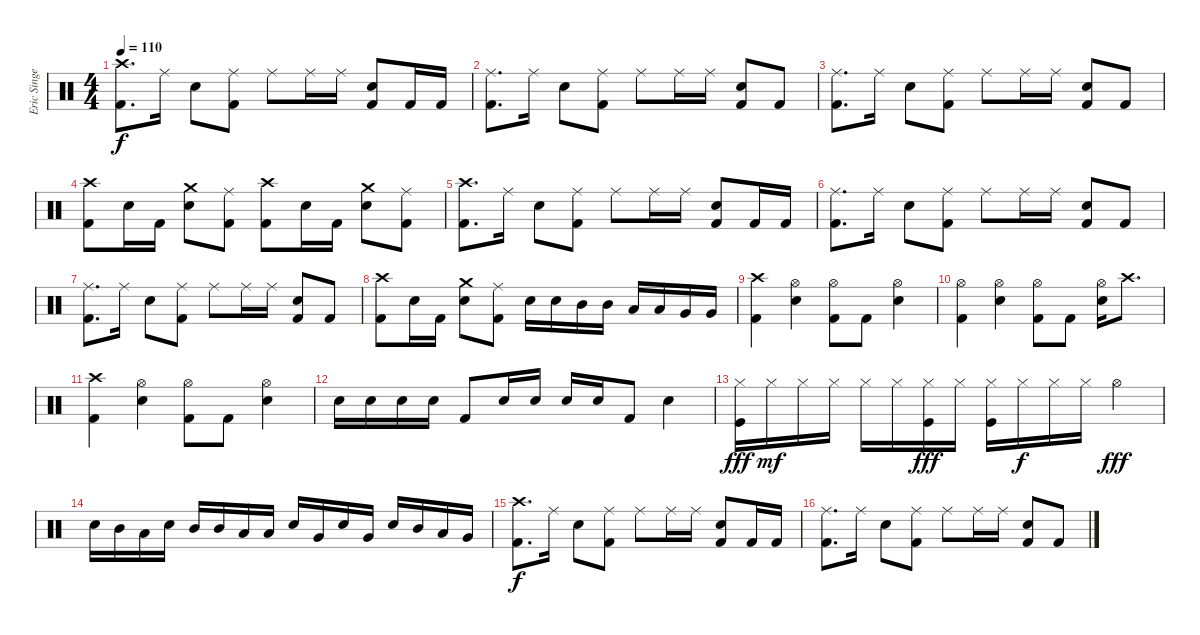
\track ("Eric Singer" "Eric Singe") {instrument percussion}
\staff {score}
\articulation defaults
\ts (4 4)
\tempo 110
\clef neutral
\ks c
("Crash high (hit)" "Kick (hit) 2").8{d dy f} "Ride (middle)".16 "Electric Snare (hit)".8 ("Ride (middle)" "Kick (hit) 2").8 "Ride (middle)".8 "Ride (middle)".16 "Ride (middle)".16 ("Electric Snare (hit)" "Kick (hit) 2").8 "Kick (hit) 2".16 "Kick (hit) 2".16 |
("Ride (middle)" "Kick (hit) 2").8{d} "Ride (middle)".16 "Electric Snare (hit)".8 ("Ride (middle)" "Kick (hit) 2").8 "Ride (middle)".8 "Ride (middle)".16 "Ride (middle)".16 ("Electric Snare (hit)" "Kick (hit) 2").8 "Kick (hit) 2".8 |
("Ride (middle)" "Kick (hit) 2").8{d} "Ride (middle)".16 "Electric Snare (hit)".8 ("Ride (middle)" "Kick (hit) 2").8 "Ride (middle)".8 "Ride (middle)".16 "Ride (middle)".16 ("Electric Snare (hit)" "Kick (hit) 2").8 "Kick (hit) 2".8 |
("Crash high (hit)" "Kick (hit) 2").8 "Snare (hit) 2".16 "Kick (hit) 2".16 ("Crash medium (hit)" "Snare (hit) 2").8 ("Ride (middle)" "Kick (hit) 2").8 ("Crash high (hit)" "Kick (hit) 2").8 "Snare (hit) 2".16 "Kick (hit) 2".16 ("Crash medium (hit)" "Snare (hit) 2").8 ("Ride (middle)" "Kick (hit) 2").8 |
("Crash high (hit)" "Kick (hit) 2").8{d} "Ride (middle)".16 "Electric Snare (hit)".8 ("Ride (middle)" "Kick (hit) 2").8 "Ride (middle)".8 "Ride (middle)".16 "Ride (middle)".16 ("Electric Snare (hit)" "Kick (hit) 2").8 "Kick (hit) 2".16 "Kick (hit) 2".16 |
("Ride (middle)" "Kick (hit) 2").8{d} "Ride (middle)".16 "Electric Snare (hit)".8 ("Ride (middle)" "Kick (hit) 2").8 "Ride (middle)".8 "Ride (middle)".16 "Ride (middle)".16 ("Electric Snare (hit)" "Kick (hit) 2").8 "Kick (hit) 2".8 |
("Ride (middle)" "Kick (hit) 2").8{d} "Ride (middle)".16 "Electric Snare (hit)".8 ("Ride (middle)" "Kick (hit) 2").8 "Ride (middle)".8 "Ride (middle)".16 "Ride (middle)".16 ("Electric Snare (hit)" "Kick (hit) 2").8 "Kick (hit) 2".8 |
("Crash high (hit)" "Kick (hit) 2").8 "Snare (hit) 2".16 "Kick (hit) 2".16 ("Crash medium (hit)" "Snare (hit) 2").8 ("Ride (middle)" "Kick (hit) 2").8 "Snare (hit) 2".16 "Snare (hit) 2".16 "Mid Tom (hit)".16 "Mid Tom (hit)".16 "Low Tom (hit)".16 "Low Tom (hit)".16 "Very Low Tom (hit)".16 "Very Low Tom (hit)".16 |
("Kick (hit) 2" "Crash high (hit)").4 ("Electric Snare (hit)" "Hi-Hat (open)").4 ("Kick (hit) 2" "Hi-Hat (open)").8 "Kick (hit) 2".8 ("Electric Snare (hit)" "Hi-Hat (open)").4 |
("Kick (hit) 2" "Hi-Hat (open)").4 ("Electric Snare (hit)" "Hi-Hat (open)").4 ("Kick (hit) 2" "Hi-Hat (open)").8 "Kick (hit) 2".8 ("Electric Snare (hit)" "Hi-Hat (open)").16 "Crash high (hit)".8{d} |
("Kick (hit) 2" "Crash high (hit)").4 ("Electric Snare (hit)" "Hi-Hat (open)").4 ("Kick (hit) 2" "Hi-Hat (open)").8 "Kick (hit) 2".8 ("Electric Snare (hit)" "Hi-Hat (open)").4 |
"Snare (hit) 2".16 "Snare (hit) 2".16 "Snare (hit) 2".16 "Snare (hit) 2".16 "Kick (hit) 2".8 "Snare (hit) 2".16 "Snare (hit) 2".16 "Snare (hit) 2".16 "Snare (hit) 2".16 "Kick (hit) 2".8 "Electric Snare (hit)".4 |
("Hi-Hat (closed)" "Kick (hit)").16{dy fff} "Hi-Hat (closed)".16{dy mf} "Hi-Hat (closed)".16 "Hi-Hat (closed)".16 "Hi-Hat (closed)".16 "Hi-Hat (closed)".16 ("Hi-Hat (closed)" "Kick (hit)").16{dy fff} "Hi-Hat (closed)".16 ("Hi-Hat (closed)" "Kick (hit)").16 "Hi-Hat (closed)".16{dy f} "Hi-Hat (closed)".16 "Hi-Hat (closed)".16 "Hi-Hat (open)".4{dy fff} |
"Snare (hit) 2".16 "Mid Tom (hit)".16 "Low Tom (hit)".16 "Snare (hit) 2".16 "Mid Tom (hit)".16 "Mid Tom (hit)".16 "Low Tom (hit)".16 "Low Tom (hit)".16 "Snare (hit) 2".16 "Very Low Tom (hit)".16 "Snare (hit) 2".16 "Very Low Tom (hit)".16 "Snare (hit) 2".16 "Mid Tom (hit)".16 "Low Tom (hit)".16 "Very Low Tom (hit)".16 |
("Crash high (hit)" "Kick (hit) 2").8{d dy f} "Ride (middle)".16 "Electric Snare (hit)".8 ("Ride (middle)" "Kick (hit) 2").8 "Ride (middle)".8 "Ride (middle)".16 "Ride (middle)".16 ("Electric Snare (hit)" "Kick (hit) 2").8 "Kick (hit) 2".16 "Kick (hit) 2".16 |
("Ride (middle)" "Kick (hit) 2").8{d} "Ride (middle)".16 "Electric Snare (hit)".8 ("Ride (middle)" "Kick (hit) 2").8 "Ride (middle)".8 "Ride (middle)".16 "Ride (middle)".16 ("Electric Snare (hit)" "Kick (hit) 2").8 "Kick (hit) 2".8
